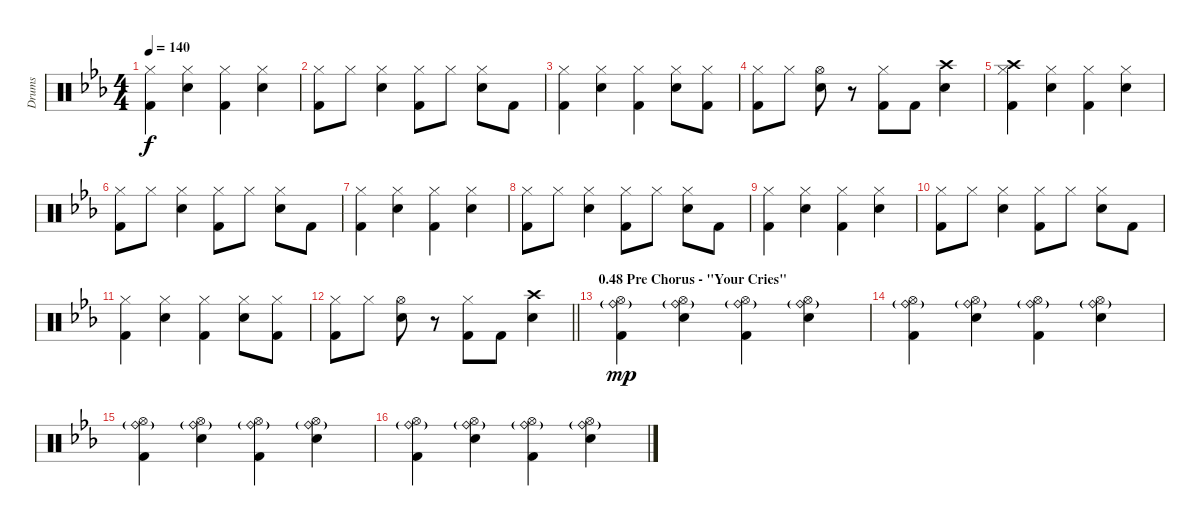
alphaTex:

\track ("Drums" "Drums") {instrument percussion}
\staff {score}
\articulation defaults
\ts (4 4)
\tempo 140
\clef neutral
\ks cminor
("Hi-Hat (closed)" "Kick (hit) 2").4{dy f} ("Hi-Hat (closed)" "Electric Snare (hit)").4 ("Hi-Hat (closed)" "Kick (hit) 2").4 ("Hi-Hat (closed)" "Electric Snare (hit)").4 |
("Hi-Hat (closed)" "Kick (hit) 2").8 "Hi-Hat (closed)".8 ("Hi-Hat (closed)" "Electric Snare (hit)").4 ("Hi-Hat (closed)" "Kick (hit) 2").8 "Hi-Hat (closed)".8 ("Hi-Hat (closed)" "Electric Snare (hit)").8 "Kick (hit) 2".8 |
("Hi-Hat (closed)" "Kick (hit) 2").4 ("Hi-Hat (closed)" "Electric Snare (hit)").4 ("Hi-Hat (closed)" "Kick (hit) 2").4 ("Hi-Hat (closed)" "Electric Snare (hit)").8 ("Hi-Hat (closed)" "Kick (hit) 2").8 |
("Hi-Hat (closed)" "Kick (hit) 2").8 "Hi-Hat (closed)".8 ("Hi-Hat (open)" "Electric Snare (hit)").8 r.8 ("Hi-Hat (closed)" "Kick (hit) 2").8 "Kick (hit) 2".8 ("Crash high (hit)" "Electric Snare (hit)").4 |
("Crash high (hit)" "Hi-Hat (closed)" "Kick (hit) 2").4 ("Hi-Hat (closed)" "Electric Snare (hit)").4 ("Hi-Hat (closed)" "Kick (hit) 2").4 ("Hi-Hat (closed)" "Electric Snare (hit)").4 |
("Hi-Hat (closed)" "Kick (hit) 2").8 "Hi-Hat (closed)".8 ("Hi-Hat (closed)" "Electric Snare (hit)").4 ("Hi-Hat (closed)" "Kick (hit) 2").8 "Hi-Hat (closed)".8 ("Hi-Hat (closed)" "Electric Snare (hit)").8 "Kick (hit) 2".8 |
("Hi-Hat (closed)" "Kick (hit) 2").4 ("Hi-Hat (closed)" "Electric Snare (hit)").4 ("Hi-Hat (closed)" "Kick (hit) 2").4 ("Hi-Hat (closed)" "Electric Snare (hit)").4 |
("Hi-Hat (closed)" "Kick (hit) 2").8 "Hi-Hat (closed)".8 ("Hi-Hat (closed)" "Electric Snare (hit)").4 ("Hi-Hat (closed)" "Kick (hit) 2").8 "Hi-Hat (closed)".8 ("Hi-Hat (closed)" "Electric Snare (hit)").8 "Kick (hit) 2".8 |
("Hi-Hat (closed)" "Kick (hit) 2").4 ("Hi-Hat (closed)" "Electric Snare (hit)").4 ("Hi-Hat (closed)" "Kick (hit) 2").4 ("Hi-Hat (closed)" "Electric Snare (hit)").4 |
("Hi-Hat (closed)" "Kick (hit) 2").8 "Hi-Hat (closed)".8 ("Hi-Hat (closed)" "Electric Snare (hit)").4 ("Hi-Hat (closed)" "Kick (hit) 2").8 "Hi-Hat (closed)".8 ("Hi-Hat (closed)" "Electric Snare (hit)").8 "Kick (hit) 2".8 |
("Hi-Hat (closed)" "Kick (hit) 2").4 ("Hi-Hat (closed)" "Electric Snare (hit)").4 ("Hi-Hat (closed)" "Kick (hit) 2").4 ("Hi-Hat (closed)" "Electric Snare (hit)").8 ("Hi-Hat (closed)" "Kick (hit) 2").8 |
\barLineRight lightlight
("Hi-Hat (closed)" "Kick (hit) 2").8 "Hi-Hat (closed)".8 ("Hi-Hat (open)" "Electric Snare (hit)").8 r.8 ("Hi-Hat (closed)" "Kick (hit) 2").8 "Kick (hit) 2".8 ("Crash high (hit)" "Electric Snare (hit)").4 |
\section ("" "0.48 Pre Chorus - \"Your Cries\"")
("Ride (bell)"{g} "Hi-Hat (open)" "Kick (hit) 2").4{dy mp} ("Ride (bell)"{g} "Hi-Hat (open)" "Electric Snare (hit)").4 ("Ride (bell)"{g} "Hi-Hat (open)" "Kick (hit) 2").4 ("Ride (bell)"{g} "Hi-Hat (open)" "Electric Snare (hit)").4 |
("Ride (bell)"{g} "Hi-Hat (open)" "Kick (hit) 2").4 ("Ride (bell)"{g} "Hi-Hat (open)" "Electric Snare (hit)").4 ("Ride (bell)"{g} "Hi-Hat (open)" "Kick (hit) 2").4 ("Ride (bell)"{g} "Hi-Hat (open)" "Electric Snare (hit)").4 |
("Ride (bell)"{g} "Hi-Hat (open)" "Kick (hit) 2").4 ("Ride (bell)"{g} "Hi-Hat (open)" "Electric Snare (hit)").4 ("Ride (bell)"{g} "Hi-Hat (open)" "Kick (hit) 2").4 ("Ride (bell)"{g} "Hi-Hat (open)" "Electric Snare (hit)").4 |
("Ride (bell)"{g} "Hi-Hat (open)" "Kick (hit) 2").4 ("Ride (bell)"{g} "Hi-Hat (open)" "Electric Snare (hit)").4 ("Ride (bell)"{g} "Hi-Hat (open)" "Kick (hit) 2").4 ("Ride (bell)"{g} "Hi-Hat (open)" "Electric Snare (hit)").4
